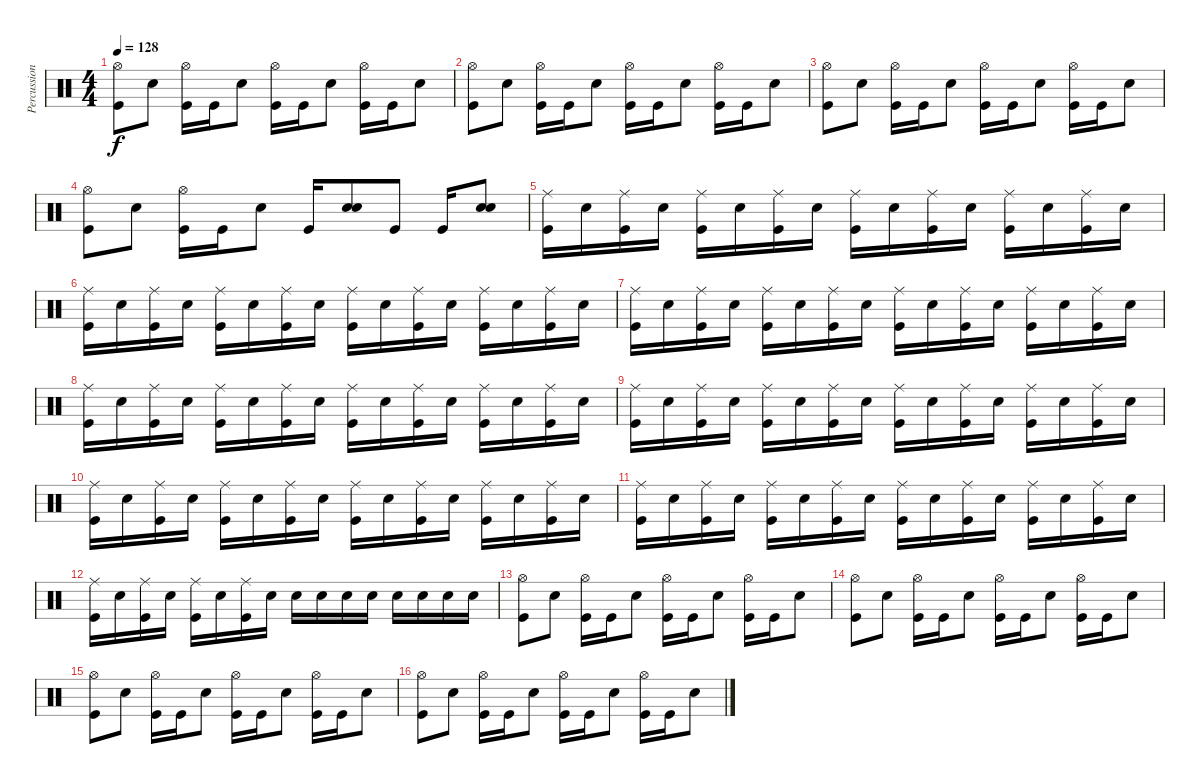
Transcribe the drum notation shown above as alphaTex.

\track ("Percussion" "Percussion") {instrument percussion}
\staff {score}
\articulation defaults
\ts (4 4)
\tempo 128
\clef neutral
\ks c
("Hi-Hat (open)" "Kick (hit)").8{dy f} "Electric Snare (hit)".8 ("Hi-Hat (open)" "Kick (hit)").16 "Kick (hit)".16 "Electric Snare (hit)".8 ("Hi-Hat (open)" "Kick (hit)").16 "Kick (hit)".16 "Electric Snare (hit)".8 ("Hi-Hat (open)" "Kick (hit)").16 "Kick (hit)".16 "Electric Snare (hit)".8 |
("Hi-Hat (open)" "Kick (hit)").8 "Electric Snare (hit)".8 ("Hi-Hat (open)" "Kick (hit)").16 "Kick (hit)".16 "Electric Snare (hit)".8 ("Hi-Hat (open)" "Kick (hit)").16 "Kick (hit)".16 "Electric Snare (hit)".8 ("Hi-Hat (open)" "Kick (hit)").16 "Kick (hit)".16 "Electric Snare (hit)".8 |
("Hi-Hat (open)" "Kick (hit)").8 "Electric Snare (hit)".8 ("Hi-Hat (open)" "Kick (hit)").16 "Kick (hit)".16 "Electric Snare (hit)".8 ("Hi-Hat (open)" "Kick (hit)").16 "Kick (hit)".16 "Electric Snare (hit)".8 ("Hi-Hat (open)" "Kick (hit)").16 "Kick (hit)".16 "Electric Snare (hit)".8 |
("Hi-Hat (open)" "Kick (hit)").8 "Electric Snare (hit)".8 ("Hi-Hat (open)" "Kick (hit)").16 "Kick (hit)".16 "Electric Snare (hit)".8 "Kick (hit)".16 ("Electric Snare (hit)" "Electric Snare (hit)").8 "Kick (hit)".8 "Kick (hit)".16 ("Electric Snare (hit)" "Electric Snare (hit)").8 |
("Ride (middle)" "Kick (hit)").16 "Electric Snare (hit)".16 ("Ride (middle)" "Kick (hit)").16 "Electric Snare (hit)".16 ("Ride (middle)" "Kick (hit)").16 "Electric Snare (hit)".16 ("Ride (middle)" "Kick (hit)").16 "Electric Snare (hit)".16 ("Ride (middle)" "Kick (hit)").16 "Electric Snare (hit)".16 ("Ride (middle)" "Kick (hit)").16 "Electric Snare (hit)".16 ("Ride (middle)" "Kick (hit)").16 "Electric Snare (hit)".16 ("Ride (middle)" "Kick (hit)").16 "Electric Snare (hit)".16 |
("Ride (middle)" "Kick (hit)").16 "Electric Snare (hit)".16 ("Ride (middle)" "Kick (hit)").16 "Electric Snare (hit)".16 ("Ride (middle)" "Kick (hit)").16 "Electric Snare (hit)".16 ("Ride (middle)" "Kick (hit)").16 "Electric Snare (hit)".16 ("Ride (middle)" "Kick (hit)").16 "Electric Snare (hit)".16 ("Ride (middle)" "Kick (hit)").16 "Electric Snare (hit)".16 ("Ride (middle)" "Kick (hit)").16 "Electric Snare (hit)".16 ("Ride (middle)" "Kick (hit)").16 "Electric Snare (hit)".16 |
("Ride (middle)" "Kick (hit)").16 "Electric Snare (hit)".16 ("Ride (middle)" "Kick (hit)").16 "Electric Snare (hit)".16 ("Ride (middle)" "Kick (hit)").16 "Electric Snare (hit)".16 ("Ride (middle)" "Kick (hit)").16 "Electric Snare (hit)".16 ("Ride (middle)" "Kick (hit)").16 "Electric Snare (hit)".16 ("Ride (middle)" "Kick (hit)").16 "Electric Snare (hit)".16 ("Ride (middle)" "Kick (hit)").16 "Electric Snare (hit)".16 ("Ride (middle)" "Kick (hit)").16 "Electric Snare (hit)".16 |
("Ride (middle)" "Kick (hit)").16 "Electric Snare (hit)".16 ("Ride (middle)" "Kick (hit)").16 "Electric Snare (hit)".16 ("Ride (middle)" "Kick (hit)").16 "Electric Snare (hit)".16 ("Ride (middle)" "Kick (hit)").16 "Electric Snare (hit)".16 ("Ride (middle)" "Kick (hit)").16 "Electric Snare (hit)".16 ("Ride (middle)" "Kick (hit)").16 "Electric Snare (hit)".16 ("Ride (middle)" "Kick (hit)").16 "Electric Snare (hit)".16 ("Ride (middle)" "Kick (hit)").16 "Electric Snare (hit)".16 |
("Ride (middle)" "Kick (hit)").16 "Electric Snare (hit)".16 ("Ride (middle)" "Kick (hit)").16 "Electric Snare (hit)".16 ("Ride (middle)" "Kick (hit)").16 "Electric Snare (hit)".16 ("Ride (middle)" "Kick (hit)").16 "Electric Snare (hit)".16 ("Ride (middle)" "Kick (hit)").16 "Electric Snare (hit)".16 ("Ride (middle)" "Kick (hit)").16 "Electric Snare (hit)".16 ("Ride (middle)" "Kick (hit)").16 "Electric Snare (hit)".16 ("Ride (middle)" "Kick (hit)").16 "Electric Snare (hit)".16 |
("Ride (middle)" "Kick (hit)").16 "Electric Snare (hit)".16 ("Ride (middle)" "Kick (hit)").16 "Electric Snare (hit)".16 ("Ride (middle)" "Kick (hit)").16 "Electric Snare (hit)".16 ("Ride (middle)" "Kick (hit)").16 "Electric Snare (hit)".16 ("Ride (middle)" "Kick (hit)").16 "Electric Snare (hit)".16 ("Ride (middle)" "Kick (hit)").16 "Electric Snare (hit)".16 ("Ride (middle)" "Kick (hit)").16 "Electric Snare (hit)".16 ("Ride (middle)" "Kick (hit)").16 "Electric Snare (hit)".16 |
("Ride (middle)" "Kick (hit)").16 "Electric Snare (hit)".16 ("Ride (middle)" "Kick (hit)").16 "Electric Snare (hit)".16 ("Ride (middle)" "Kick (hit)").16 "Electric Snare (hit)".16 ("Ride (middle)" "Kick (hit)").16 "Electric Snare (hit)".16 ("Ride (middle)" "Kick (hit)").16 "Electric Snare (hit)".16 ("Ride (middle)" "Kick (hit)").16 "Electric Snare (hit)".16 ("Ride (middle)" "Kick (hit)").16 "Electric Snare (hit)".16 ("Ride (middle)" "Kick (hit)").16 "Electric Snare (hit)".16 |
("Ride (middle)" "Kick (hit)").16 "Electric Snare (hit)".16 ("Ride (middle)" "Kick (hit)").16 "Electric Snare (hit)".16 ("Ride (middle)" "Kick (hit)").16 "Electric Snare (hit)".16 ("Ride (middle)" "Kick (hit)").16 "Electric Snare (hit)".16 "Electric Snare (hit)".16 "Electric Snare (hit)".16 "Electric Snare (hit)".16 "Electric Snare (hit)".16 "Electric Snare (hit)".16 "Electric Snare (hit)".16 "Electric Snare (hit)".16 "Electric Snare (hit)".16 |
("Hi-Hat (open)" "Kick (hit)").8 "Electric Snare (hit)".8 ("Hi-Hat (open)" "Kick (hit)").16 "Kick (hit)".16 "Electric Snare (hit)".8 ("Hi-Hat (open)" "Kick (hit)").16 "Kick (hit)".16 "Electric Snare (hit)".8 ("Hi-Hat (open)" "Kick (hit)").16 "Kick (hit)".16 "Electric Snare (hit)".8 |
("Hi-Hat (open)" "Kick (hit)").8 "Electric Snare (hit)".8 ("Hi-Hat (open)" "Kick (hit)").16 "Kick (hit)".16 "Electric Snare (hit)".8 ("Hi-Hat (open)" "Kick (hit)").16 "Kick (hit)".16 "Electric Snare (hit)".8 ("Hi-Hat (open)" "Kick (hit)").16 "Kick (hit)".16 "Electric Snare (hit)".8 |
("Hi-Hat (open)" "Kick (hit)").8 "Electric Snare (hit)".8 ("Hi-Hat (open)" "Kick (hit)").16 "Kick (hit)".16 "Electric Snare (hit)".8 ("Hi-Hat (open)" "Kick (hit)").16 "Kick (hit)".16 "Electric Snare (hit)".8 ("Hi-Hat (open)" "Kick (hit)").16 "Kick (hit)".16 "Electric Snare (hit)".8 |
("Hi-Hat (open)" "Kick (hit)").8 "Electric Snare (hit)".8 ("Hi-Hat (open)" "Kick (hit)").16 "Kick (hit)".16 "Electric Snare (hit)".8 ("Hi-Hat (open)" "Kick (hit)").16 "Kick (hit)".16 "Electric Snare (hit)".8 ("Hi-Hat (open)" "Kick (hit)").16 "Kick (hit)".16 "Electric Snare (hit)".8
